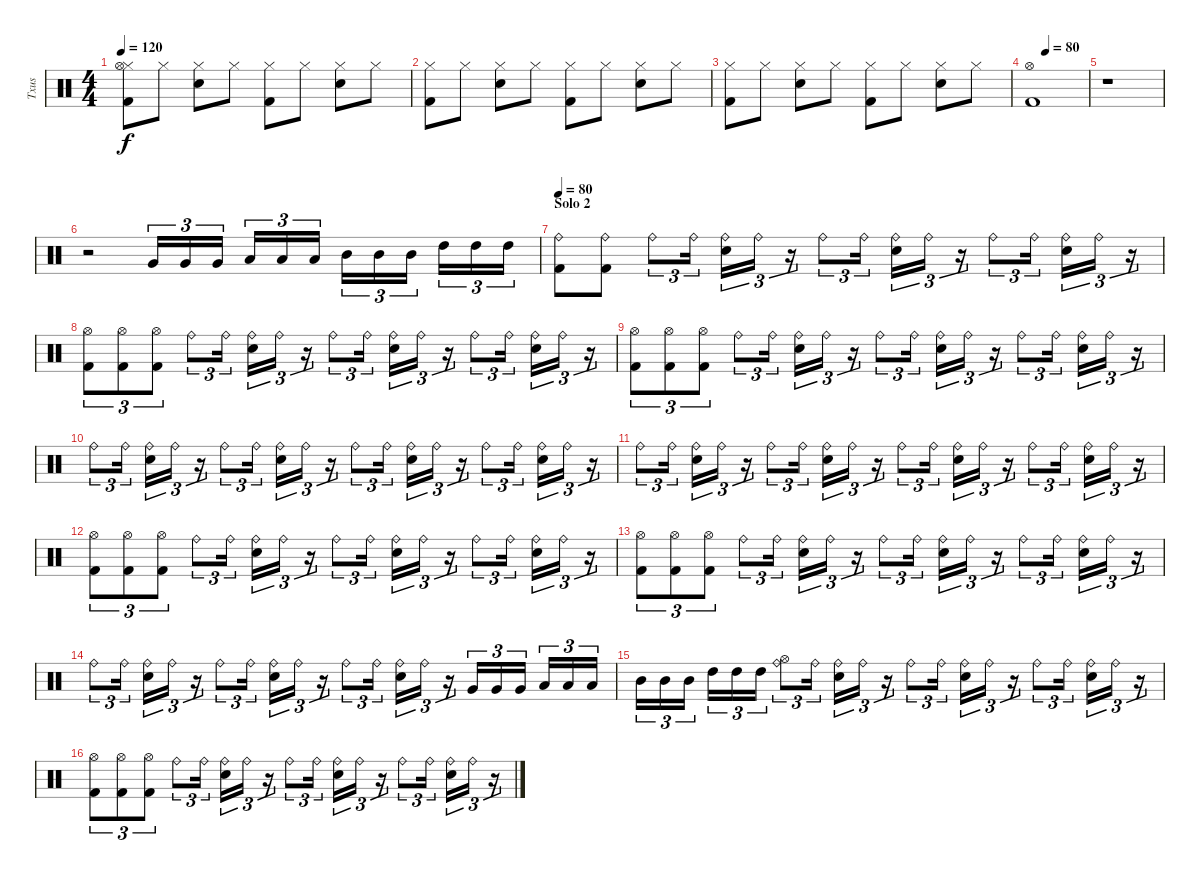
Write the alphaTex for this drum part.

\track ("Txus" "Txus") {instrument percussion}
\staff {score}
\articulation defaults
\ts (4 4)
\tempo 120
\clef neutral
\ks c
("Hi-Hat (closed)" "Kick (hit) 2" "Hi-Hat (open)").8{dy f} "Hi-Hat (closed)".8 ("Hi-Hat (closed)" "Snare (hit) 2").8 "Hi-Hat (closed)".8 ("Hi-Hat (closed)" "Kick (hit) 2").8 "Hi-Hat (closed)".8 ("Hi-Hat (closed)" "Snare (hit) 2").8 "Hi-Hat (closed)".8 |
("Hi-Hat (closed)" "Kick (hit) 2").8 "Hi-Hat (closed)".8 ("Hi-Hat (closed)" "Snare (hit) 2").8 "Hi-Hat (closed)".8 ("Hi-Hat (closed)" "Kick (hit) 2").8 "Hi-Hat (closed)".8 ("Hi-Hat (closed)" "Snare (hit) 2").8 "Hi-Hat (closed)".8 |
("Hi-Hat (closed)" "Kick (hit) 2").8 "Hi-Hat (closed)".8 ("Hi-Hat (closed)" "Snare (hit) 2").8 "Hi-Hat (closed)".8 ("Hi-Hat (closed)" "Kick (hit) 2").8 "Hi-Hat (closed)".8 ("Hi-Hat (closed)" "Snare (hit) 2").8 "Hi-Hat (closed)".8 |
\tempo (80 0.25)
("Hi-Hat (open)" "Kick (hit) 2").1 |
r.1 |
r.2 "Very Low Tom (hit)".16{tu (3 2)} "Very Low Tom (hit)".16{tu (3 2)} "Very Low Tom (hit)".16{tu (3 2)} "Low Tom (hit)".16{tu (3 2)} "Low Tom (hit)".16{tu (3 2)} "Low Tom (hit)".16{tu (3 2)} "Mid Tom (hit)".16{tu (3 2)} "Mid Tom (hit)".16{tu (3 2)} "Mid Tom (hit)".16{tu (3 2)} "High Tom (hit)".16{tu (3 2)} "High Tom (hit)".16{tu (3 2)} "High Tom (hit)".16{tu (3 2)} |
\section ("" "Solo 2")
\tempo 80
("Ride (bell)" "Kick (hit) 2").8 ("Ride (bell)" "Kick (hit) 2").8 "Ride (bell)".8{tu (3 2)} "Ride (bell)".16{tu (3 2)} ("Ride (bell)" "Snare (hit) 2").16{tu (3 2)} "Ride (bell)".16{tu (3 2)} r.16{tu (3 2)} "Ride (bell)".8{tu (3 2)} "Ride (bell)".16{tu (3 2)} ("Ride (bell)" "Snare (hit) 2").16{tu (3 2)} "Ride (bell)".16{tu (3 2)} r.16{tu (3 2)} "Ride (bell)".8{tu (3 2)} "Ride (bell)".16{tu (3 2)} ("Ride (bell)" "Snare (hit) 2").16{tu (3 2)} "Ride (bell)".16{tu (3 2)} r.16{tu (3 2)} |
("Hi-Hat (open)" "Kick (hit) 2").8{tu (3 2)} ("Hi-Hat (open)" "Kick (hit) 2").8{tu (3 2)} ("Hi-Hat (open)" "Kick (hit) 2").8{tu (3 2)} "Ride (bell)".8{tu (3 2)} "Ride (bell)".16{tu (3 2)} ("Ride (bell)" "Snare (hit) 2").16{tu (3 2)} "Ride (bell)".16{tu (3 2)} r.16{tu (3 2)} "Ride (bell)".8{tu (3 2)} "Ride (bell)".16{tu (3 2)} ("Ride (bell)" "Snare (hit) 2").16{tu (3 2)} "Ride (bell)".16{tu (3 2)} r.16{tu (3 2)} "Ride (bell)".8{tu (3 2)} "Ride (bell)".16{tu (3 2)} ("Ride (bell)" "Snare (hit) 2").16{tu (3 2)} "Ride (bell)".16{tu (3 2)} r.16{tu (3 2)} |
("Hi-Hat (open)" "Kick (hit) 2").8{tu (3 2)} ("Hi-Hat (open)" "Kick (hit) 2").8{tu (3 2)} ("Hi-Hat (open)" "Kick (hit) 2").8{tu (3 2)} "Ride (bell)".8{tu (3 2)} "Ride (bell)".16{tu (3 2)} ("Ride (bell)" "Snare (hit) 2").16{tu (3 2)} "Ride (bell)".16{tu (3 2)} r.16{tu (3 2)} "Ride (bell)".8{tu (3 2)} "Ride (bell)".16{tu (3 2)} ("Ride (bell)" "Snare (hit) 2").16{tu (3 2)} "Ride (bell)".16{tu (3 2)} r.16{tu (3 2)} "Ride (bell)".8{tu (3 2)} "Ride (bell)".16{tu (3 2)} ("Ride (bell)" "Snare (hit) 2").16{tu (3 2)} "Ride (bell)".16{tu (3 2)} r.16{tu (3 2)} |
"Ride (bell)".8{tu (3 2)} "Ride (bell)".16{tu (3 2)} ("Ride (bell)" "Snare (hit) 2").16{tu (3 2)} "Ride (bell)".16{tu (3 2)} r.16{tu (3 2)} "Ride (bell)".8{tu (3 2)} "Ride (bell)".16{tu (3 2)} ("Ride (bell)" "Snare (hit) 2").16{tu (3 2)} "Ride (bell)".16{tu (3 2)} r.16{tu (3 2)} "Ride (bell)".8{tu (3 2)} "Ride (bell)".16{tu (3 2)} ("Ride (bell)" "Snare (hit) 2").16{tu (3 2)} "Ride (bell)".16{tu (3 2)} r.16{tu (3 2)} "Ride (bell)".8{tu (3 2)} "Ride (bell)".16{tu (3 2)} ("Ride (bell)" "Snare (hit) 2").16{tu (3 2)} "Ride (bell)".16{tu (3 2)} r.16{tu (3 2)} |
"Ride (bell)".8{tu (3 2)} "Ride (bell)".16{tu (3 2)} ("Ride (bell)" "Snare (hit) 2").16{tu (3 2)} "Ride (bell)".16{tu (3 2)} r.16{tu (3 2)} "Ride (bell)".8{tu (3 2)} "Ride (bell)".16{tu (3 2)} ("Ride (bell)" "Snare (hit) 2").16{tu (3 2)} "Ride (bell)".16{tu (3 2)} r.16{tu (3 2)} "Ride (bell)".8{tu (3 2)} "Ride (bell)".16{tu (3 2)} ("Ride (bell)" "Snare (hit) 2").16{tu (3 2)} "Ride (bell)".16{tu (3 2)} r.16{tu (3 2)} "Ride (bell)".8{tu (3 2)} "Ride (bell)".16{tu (3 2)} ("Ride (bell)" "Snare (hit) 2").16{tu (3 2)} "Ride (bell)".16{tu (3 2)} r.16{tu (3 2)} |
("Hi-Hat (open)" "Kick (hit) 2").8{tu (3 2)} ("Hi-Hat (open)" "Kick (hit) 2").8{tu (3 2)} ("Hi-Hat (open)" "Kick (hit) 2").8{tu (3 2)} "Ride (bell)".8{tu (3 2)} "Ride (bell)".16{tu (3 2)} ("Ride (bell)" "Snare (hit) 2").16{tu (3 2)} "Ride (bell)".16{tu (3 2)} r.16{tu (3 2)} "Ride (bell)".8{tu (3 2)} "Ride (bell)".16{tu (3 2)} ("Ride (bell)" "Snare (hit) 2").16{tu (3 2)} "Ride (bell)".16{tu (3 2)} r.16{tu (3 2)} "Ride (bell)".8{tu (3 2)} "Ride (bell)".16{tu (3 2)} ("Ride (bell)" "Snare (hit) 2").16{tu (3 2)} "Ride (bell)".16{tu (3 2)} r.16{tu (3 2)} |
("Hi-Hat (open)" "Kick (hit) 2").8{tu (3 2)} ("Hi-Hat (open)" "Kick (hit) 2").8{tu (3 2)} ("Hi-Hat (open)" "Kick (hit) 2").8{tu (3 2)} "Ride (bell)".8{tu (3 2)} "Ride (bell)".16{tu (3 2)} ("Ride (bell)" "Snare (hit) 2").16{tu (3 2)} "Ride (bell)".16{tu (3 2)} r.16{tu (3 2)} "Ride (bell)".8{tu (3 2)} "Ride (bell)".16{tu (3 2)} ("Ride (bell)" "Snare (hit) 2").16{tu (3 2)} "Ride (bell)".16{tu (3 2)} r.16{tu (3 2)} "Ride (bell)".8{tu (3 2)} "Ride (bell)".16{tu (3 2)} ("Ride (bell)" "Snare (hit) 2").16{tu (3 2)} "Ride (bell)".16{tu (3 2)} r.16{tu (3 2)} |
"Ride (bell)".8{tu (3 2)} "Ride (bell)".16{tu (3 2)} ("Ride (bell)" "Snare (hit) 2").16{tu (3 2)} "Ride (bell)".16{tu (3 2)} r.16{tu (3 2)} "Ride (bell)".8{tu (3 2)} "Ride (bell)".16{tu (3 2)} ("Ride (bell)" "Snare (hit) 2").16{tu (3 2)} "Ride (bell)".16{tu (3 2)} r.16{tu (3 2)} "Ride (bell)".8{tu (3 2)} "Ride (bell)".16{tu (3 2)} ("Ride (bell)" "Snare (hit) 2").16{tu (3 2)} "Ride (bell)".16{tu (3 2)} r.16{tu (3 2)} "Very Low Tom (hit)".16{tu (3 2)} "Very Low Tom (hit)".16{tu (3 2)} "Very Low Tom (hit)".16{tu (3 2)} "Low Tom (hit)".16{tu (3 2)} "Low Tom (hit)".16{tu (3 2)} "Low Tom (hit)".16{tu (3 2)} |
"Mid Tom (hit)".16{tu (3 2)} "Mid Tom (hit)".16{tu (3 2)} "Mid Tom (hit)".16{tu (3 2)} "High Tom (hit)".16{tu (3 2)} "High Tom (hit)".16{tu (3 2)} "High Tom (hit)".16{tu (3 2)} ("Ride (bell)" "Hi-Hat (open)").8{tu (3 2)} "Ride (bell)".16{tu (3 2)} ("Ride (bell)" "Snare (hit) 2").16{tu (3 2)} "Ride (bell)".16{tu (3 2)} r.16{tu (3 2)} "Ride (bell)".8{tu (3 2)} "Ride (bell)".16{tu (3 2)} ("Ride (bell)" "Snare (hit) 2").16{tu (3 2)} "Ride (bell)".16{tu (3 2)} r.16{tu (3 2)} "Ride (bell)".8{tu (3 2)} "Ride (bell)".16{tu (3 2)} ("Ride (bell)" "Snare (hit) 2").16{tu (3 2)} "Ride (bell)".16{tu (3 2)} r.16{tu (3 2)} |
("Hi-Hat (open)" "Kick (hit) 2").8{tu (3 2)} ("Hi-Hat (open)" "Kick (hit) 2").8{tu (3 2)} ("Hi-Hat (open)" "Kick (hit) 2").8{tu (3 2)} "Ride (bell)".8{tu (3 2)} "Ride (bell)".16{tu (3 2)} ("Ride (bell)" "Snare (hit) 2").16{tu (3 2)} "Ride (bell)".16{tu (3 2)} r.16{tu (3 2)} "Ride (bell)".8{tu (3 2)} "Ride (bell)".16{tu (3 2)} ("Ride (bell)" "Snare (hit) 2").16{tu (3 2)} "Ride (bell)".16{tu (3 2)} r.16{tu (3 2)} "Ride (bell)".8{tu (3 2)} "Ride (bell)".16{tu (3 2)} ("Ride (bell)" "Snare (hit) 2").16{tu (3 2)} "Ride (bell)".16{tu (3 2)} r.16{tu (3 2)}
